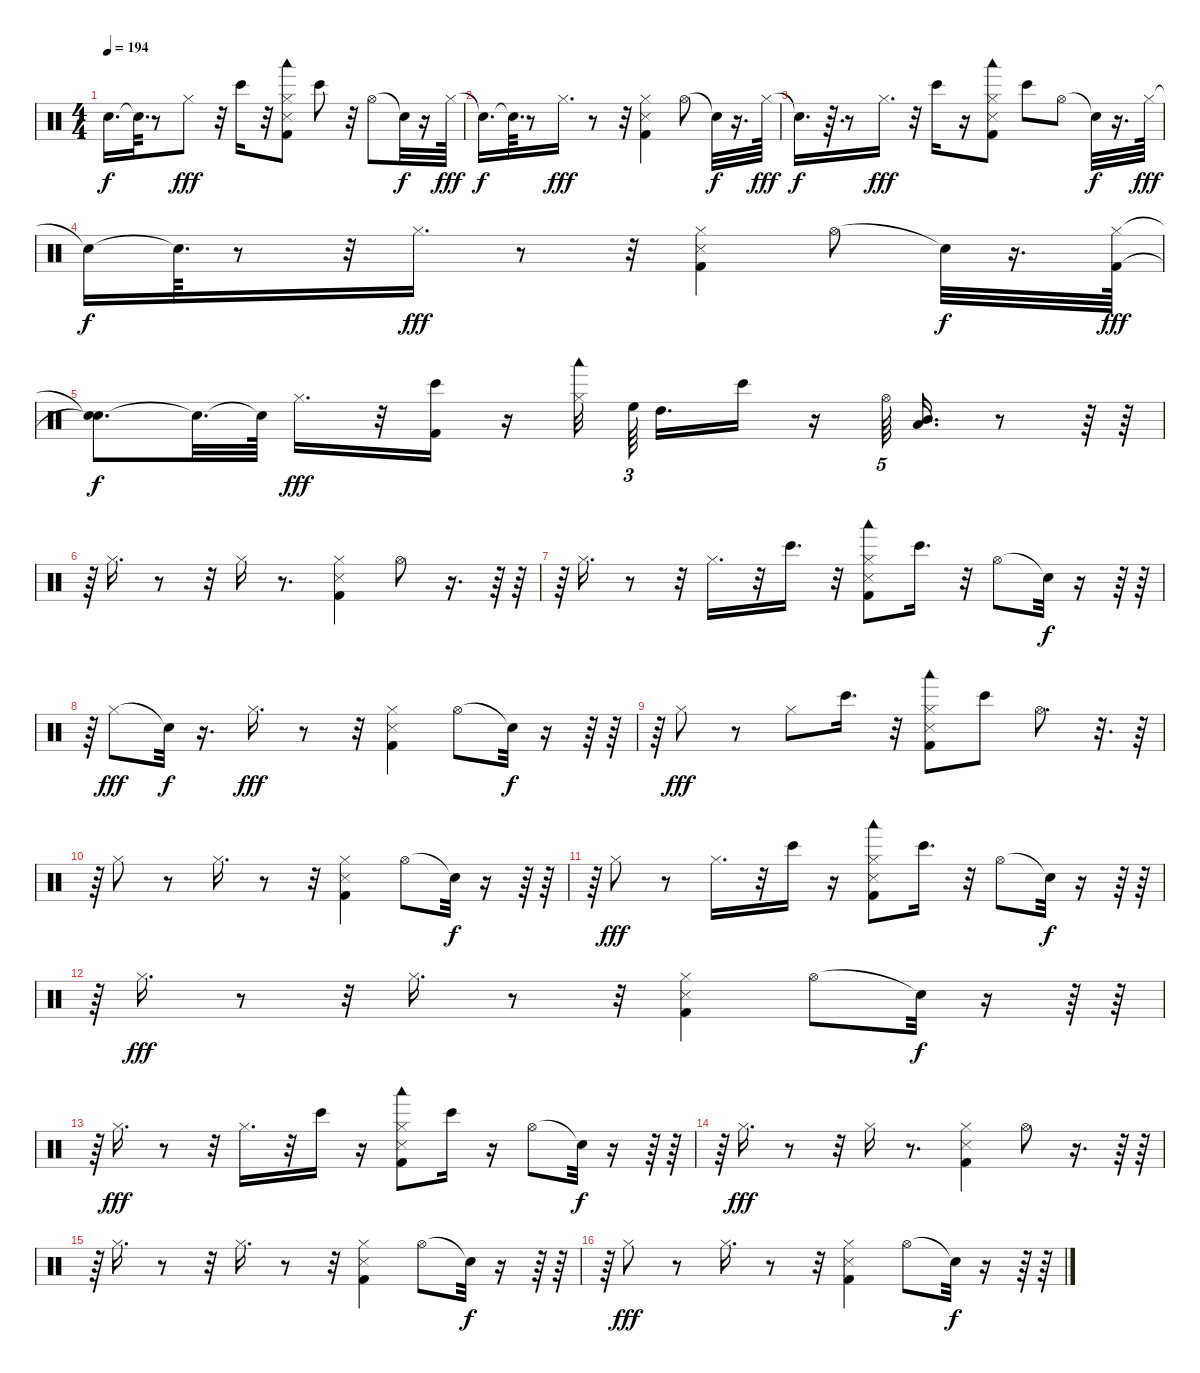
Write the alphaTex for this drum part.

\track "" {instrument percussion}
\staff {score}
\articulation defaults
\ts (4 4)
\tempo 194
\clef neutral
\ks c "Snare (hit)"{t}.16{d dy f} "Snare (hit)"{t}.64{d}
r.8 "Hi-Hat (closed)".8{dy fff} r.32 "Bongo High (hit)".16 r.32 ("Hi-Hat (closed)" "Snare (side stick) 3" "Kick (hit) 2" "Woodblock low (hit)").8 "Bongo High (hit)".8 r.32 "Hi-Hat (open)".8 "Snare (hit)"{t}.32{dy f} r.16 "Hi-Hat (closed)".64{dy fff} |
"Snare (hit)"{t}.16{d dy f} "Snare (hit)"{t}.64{d} r.8 "Hi-Hat (closed)".16{d dy fff} r.8 r.32 ("Snare (side stick) 3" "Kick (hit) 2" "Hi-Hat (closed)").4 "Hi-Hat (open)".8 "Snare (hit)"{t}.32{dy f} r.16{d} "Hi-Hat (closed)".64{dy fff} |
"Snare (hit)"{t}.16{d dy f} r.64{d} r.8 "Hi-Hat (closed)".16{d dy fff} r.32 "Bongo High (hit)".16 r.16 ("Snare (side stick) 3" "Kick (hit) 2" "Hi-Hat (closed)" "Woodblock low (hit)").8 "Bongo High (hit)".8 "Hi-Hat (open)".8 "Snare (hit)"{t}.32{dy f} r.16{d} "Hi-Hat (closed)".64{dy fff} |
"Snare (hit)"{t}.16{dy f} "Snare (hit)"{t}.64{d} r.8 r.32 "Hi-Hat (closed)".16{d dy fff} r.8 r.32 ("Kick (hit) 2" "Snare (side stick) 3" "Hi-Hat (closed)").4 "Hi-Hat (open)".8 "Snare (hit)"{t}.32{dy f} r.16{d} ("Kick (hit) 2" "Hi-Hat (closed)").64{dy fff} |
("Snare (hit)"{t} "Snare (hit)"{t}).8{d dy f} "Snare (hit)"{t}.32{d} "Snare (hit)"{t}.64 "Hi-Hat (closed)".16{d dy fff} r.32 ("Kick (hit) 2" "Bongo High (hit)").16 r.16 ("Hi-Hat (closed)" "Woodblock low (hit)").32{beam splitsecondary} "High Floor Tom (hit)".64{tu (3 2) beam splitsecondary} "High Tom (hit)".16{d} "Bongo High (hit)".16 r.16 "Hi-Hat (open)".64{tu (5 4)} ("Mid Tom (hit)" "Low Tom (hit)").16{d} r.8 r.64 r.64 |
r.64 "Hi-Hat (closed)".16{d} r.8 r.32 "Hi-Hat (closed)".16 r.8{d} ("Snare (side stick) 3" "Kick (hit) 2" "Hi-Hat (closed)").4 "Hi-Hat (open)".8 r.16{d} r.64 r.64 |
r.64 "Hi-Hat (closed)".16{d} r.8 r.32 "Hi-Hat (closed)".16{d} r.32 "Bongo High (hit)".16{d} r.32 ("Snare (side stick) 3" "Kick (hit) 2" "Hi-Hat (closed)" "Woodblock low (hit)").8 "Bongo High (hit)".16{d} r.32 "Hi-Hat (open)".8 "Snare (hit)"{t}.32{dy f} r.16 r.64 r.64 |
r.64 "Hi-Hat (closed)".8{dy fff} "Snare (hit)"{t}.32{dy f} r.16{d} "Hi-Hat (closed)".16{d dy fff} r.8 r.32 ("Snare (side stick) 3" "Kick (hit) 2" "Hi-Hat (closed)").4 "Hi-Hat (open)".8 "Snare (hit)"{t}.32{dy f} r.16 r.64 r.64 |
r.64 "Hi-Hat (closed)".8{dy fff} r.8 "Hi-Hat (closed)".8 "Bongo High (hit)".16{d} r.32 ("Hi-Hat (closed)" "Snare (side stick) 3" "Kick (hit) 2" "Woodblock low (hit)").8 "Bongo High (hit)".8 "Hi-Hat (open)".8{d} r.32{d} r.64 |
r.64 "Hi-Hat (closed)".8 r.8 "Hi-Hat (closed)".16{d} r.8 r.32 ("Snare (side stick) 3" "Kick (hit) 2" "Hi-Hat (closed)").4 "Hi-Hat (open)".8 "Snare (hit)"{t}.32{dy f} r.16 r.64 r.64 |
r.64 "Hi-Hat (closed)".8{dy fff} r.8 "Hi-Hat (closed)".16{d} r.32 "Bongo High (hit)".16 r.16 ("Snare (side stick) 3" "Kick (hit) 2" "Hi-Hat (closed)" "Woodblock low (hit)").8 "Bongo High (hit)".16{d} r.32 "Hi-Hat (open)".8 "Snare (hit)"{t}.32{dy f} r.16 r.64 r.64 |
r.64 "Hi-Hat (closed)".16{d dy fff} r.8 r.32 "Hi-Hat (closed)".16{d} r.8 r.32 ("Kick (hit) 2" "Snare (side stick) 3" "Hi-Hat (closed)").4 "Hi-Hat (open)".8 "Snare (hit)"{t}.32{dy f} r.16 r.64 r.64 |
r.64 "Hi-Hat (closed)".16{d dy fff} r.8 r.32 "Hi-Hat (closed)".16{d} r.32 "Bongo High (hit)".16 r.16 ("Kick (hit) 2" "Hi-Hat (closed)" "Snare (side stick) 3" "Woodblock low (hit)").8 "Bongo High (hit)".16 r.16 "Hi-Hat (open)".8 "Snare (hit)"{t}.32{dy f} r.16 r.64 r.64 |
r.64 "Hi-Hat (closed)".16{d dy fff} r.8 r.32 "Hi-Hat (closed)".16 r.8{d} ("Snare (side stick) 3" "Kick (hit) 2" "Hi-Hat (closed)").4 "Hi-Hat (open)".8 r.16{d} r.64 r.64 |
r.64 "Hi-Hat (closed)".16{d} r.8 r.32 "Hi-Hat (closed)".16{d} r.8 r.32 ("Snare (side stick) 3" "Kick (hit) 2" "Hi-Hat (closed)").4 "Hi-Hat (open)".8 "Snare (hit)"{t}.32{dy f} r.16 r.64 r.64 |
r.64 "Hi-Hat (closed)".8{dy fff} r.8 "Hi-Hat (closed)".16{d} r.8 r.32 ("Snare (side stick) 3" "Kick (hit) 2" "Hi-Hat (closed)").4 "Hi-Hat (open)".8 "Snare (hit)"{t}.32{dy f} r.16 r.64 r.64
